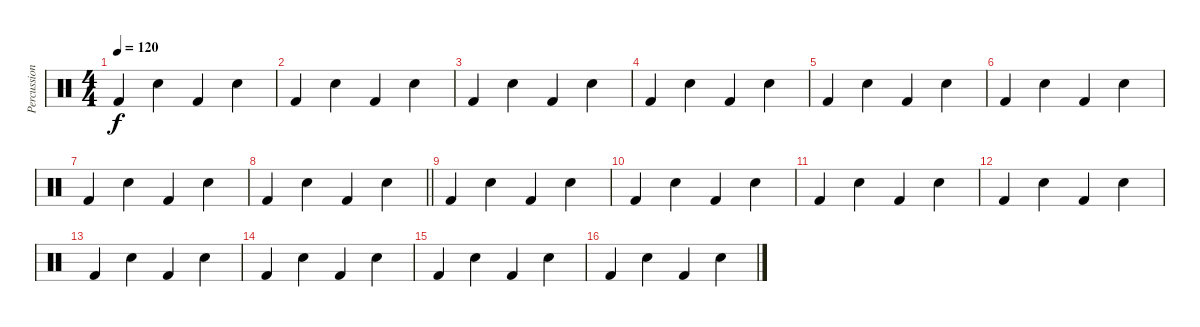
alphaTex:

\track ("Percussion" "Percussion") {instrument percussion}
\staff {score}
\articulation defaults
\ts (4 4)
\tempo 120
\clef neutral
\ks c "Kick (hit) 2".4{dy f} "Snare (hit) 2".4 "Kick (hit) 2".4 "Snare (hit) 2".4
|
"Kick (hit) 2".4 "Snare (hit) 2".4 "Kick (hit) 2".4 "Snare (hit) 2".4 |
"Kick (hit) 2".4 "Snare (hit) 2".4 "Kick (hit) 2".4 "Snare (hit) 2".4 |
"Kick (hit) 2".4 "Snare (hit) 2".4 "Kick (hit) 2".4 "Snare (hit) 2".4 |
"Kick (hit) 2".4 "Snare (hit) 2".4 "Kick (hit) 2".4 "Snare (hit) 2".4 |
"Kick (hit) 2".4 "Snare (hit) 2".4 "Kick (hit) 2".4 "Snare (hit) 2".4 |
"Kick (hit) 2".4 "Snare (hit) 2".4 "Kick (hit) 2".4 "Snare (hit) 2".4 |
\barLineRight lightlight "Kick (hit) 2".4 "Snare (hit) 2".4 "Kick (hit) 2".4 "Snare (hit) 2".4
|
"Kick (hit) 2".4 "Snare (hit) 2".4 "Kick (hit) 2".4 "Snare (hit) 2".4 |
"Kick (hit) 2".4 "Snare (hit) 2".4 "Kick (hit) 2".4 "Snare (hit) 2".4 |
"Kick (hit) 2".4 "Snare (hit) 2".4 "Kick (hit) 2".4 "Snare (hit) 2".4 |
"Kick (hit) 2".4 "Snare (hit) 2".4 "Kick (hit) 2".4 "Snare (hit) 2".4 |
"Kick (hit) 2".4 "Snare (hit) 2".4 "Kick (hit) 2".4 "Snare (hit) 2".4 |
"Kick (hit) 2".4 "Snare (hit) 2".4 "Kick (hit) 2".4 "Snare (hit) 2".4 |
"Kick (hit) 2".4 "Snare (hit) 2".4 "Kick (hit) 2".4 "Snare (hit) 2".4 |
"Kick (hit) 2".4 "Snare (hit) 2".4 "Kick (hit) 2".4 "Snare (hit) 2".4
